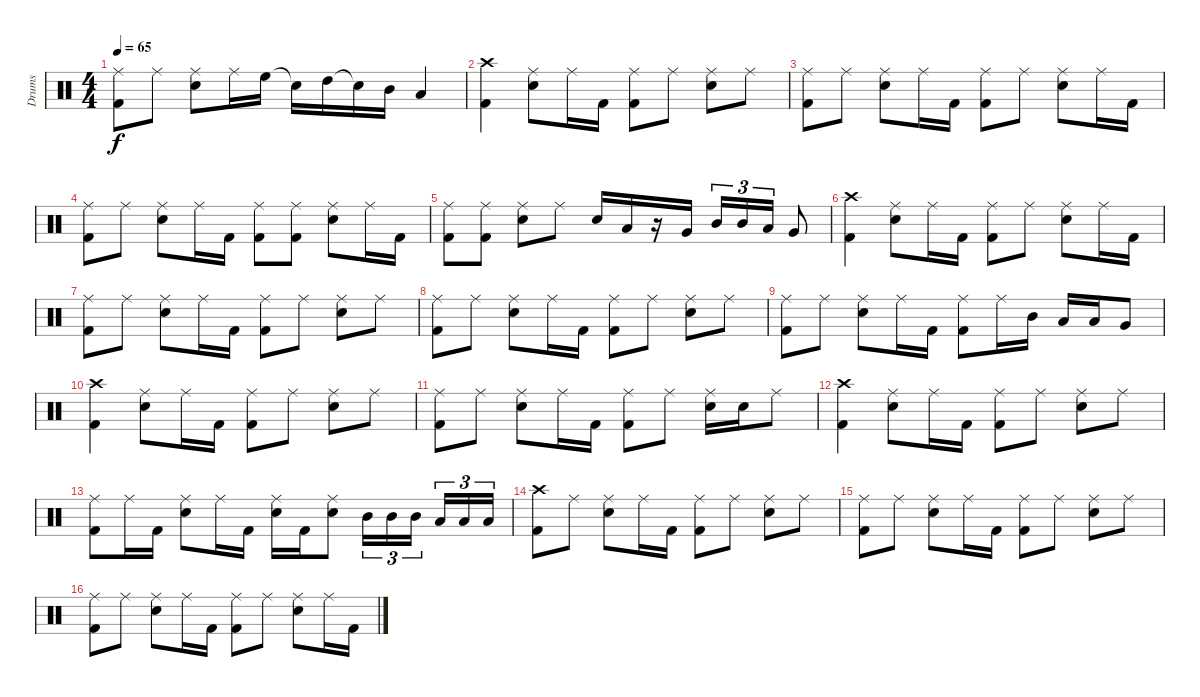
\track ("Drums" "Drums") {instrument percussion}
\staff {score}
\articulation defaults
\ts (4 4)
\tempo 65
\clef neutral
\ks c
("Ride (middle)" "Kick (hit) 2").8{dy f} "Ride (middle)".8 ("Ride (middle)" "Electric Snare (hit)").8 "Ride (middle)".16 "High Floor Tom (hit)".16 "Snare (hit)"{t}.16 "High Tom (hit)".16 "Snare (hit)"{t}.16 "Mid Tom (hit)".16 "Low Tom (hit)".4 |
("Crash high (hit)" "Kick (hit) 2").4 ("Ride (middle)" "Electric Snare (hit)").8 "Ride (middle)".16 "Kick (hit) 2".16 ("Ride (middle)" "Kick (hit) 2").8 "Ride (middle)".8 ("Ride (middle)" "Electric Snare (hit)").8 "Ride (middle)".8 |
("Ride (middle)" "Kick (hit) 2").8 "Ride (middle)".8 ("Ride (middle)" "Electric Snare (hit)").8 "Ride (middle)".16 "Kick (hit) 2".16 ("Ride (middle)" "Kick (hit) 2").8 "Ride (middle)".8 ("Ride (middle)" "Electric Snare (hit)").8 "Ride (middle)".16 "Kick (hit) 2".16 |
("Ride (middle)" "Kick (hit) 2").8 "Ride (middle)".8 ("Ride (middle)" "Electric Snare (hit)").8 "Ride (middle)".16 "Kick (hit) 2".16 ("Ride (middle)" "Kick (hit) 2").8 ("Ride (middle)" "Kick (hit) 2").8 ("Ride (middle)" "Electric Snare (hit)").8 "Ride (middle)".16 "Kick (hit) 2".16 |
("Ride (middle)" "Kick (hit) 2").8 ("Ride (middle)" "Kick (hit) 2").8 ("Ride (middle)" "Electric Snare (hit)").8 "Ride (middle)".8 "Electric Snare (hit)".16 "Low Tom (hit)".16 r.16 "Very Low Tom (hit)".16 "Mid Tom (hit)".16{tu (3 2)} "Mid Tom (hit)".16{tu (3 2)} "Low Tom (hit)".16{tu (3 2)} "Very Low Tom (hit)".8 |
("Crash high (hit)" "Kick (hit) 2").4 ("Ride (middle)" "Electric Snare (hit)").8 "Ride (middle)".16 "Kick (hit) 2".16 ("Ride (middle)" "Kick (hit) 2").8 "Ride (middle)".8 ("Ride (middle)" "Electric Snare (hit)").8 "Ride (middle)".16 "Kick (hit) 2".16 |
("Ride (middle)" "Kick (hit) 2").8 "Ride (middle)".8 ("Ride (middle)" "Electric Snare (hit)").8 "Ride (middle)".16 "Kick (hit) 2".16 ("Ride (middle)" "Kick (hit) 2").8 "Ride (middle)".8 ("Ride (middle)" "Electric Snare (hit)").8 "Ride (middle)".8 |
("Ride (middle)" "Kick (hit) 2").8 "Ride (middle)".8 ("Ride (middle)" "Electric Snare (hit)").8 "Ride (middle)".16 "Kick (hit) 2".16 ("Ride (middle)" "Kick (hit) 2").8 "Ride (middle)".8 ("Ride (middle)" "Electric Snare (hit)").8 "Ride (middle)".8 |
("Ride (middle)" "Kick (hit) 2").8 "Ride (middle)".8 ("Ride (middle)" "Electric Snare (hit)").8 "Ride (middle)".16 "Kick (hit) 2".16 ("Ride (middle)" "Kick (hit) 2").8 "Ride (middle)".16 "Mid Tom (hit)".16 "Low Tom (hit)".16 "Low Tom (hit)".16 "Very Low Tom (hit)".8 |
("Crash high (hit)" "Kick (hit) 2").4 ("Ride (middle)" "Electric Snare (hit)").8 "Ride (middle)".16 "Kick (hit) 2".16 ("Ride (middle)" "Kick (hit) 2").8 "Ride (middle)".8 ("Ride (middle)" "Electric Snare (hit)").8 "Ride (middle)".8 |
("Ride (middle)" "Kick (hit) 2").8 "Ride (middle)".8 ("Ride (middle)" "Electric Snare (hit)").8 "Ride (middle)".16 "Kick (hit) 2".16 ("Ride (middle)" "Kick (hit) 2").8 "Ride (middle)".8 ("Ride (middle)" "Electric Snare (hit)").16 "Electric Snare (hit)".16 "Ride (middle)".8 |
("Crash high (hit)" "Kick (hit) 2").4 ("Ride (middle)" "Electric Snare (hit)").8 "Ride (middle)".16 "Kick (hit) 2".16 ("Ride (middle)" "Kick (hit) 2").8 "Ride (middle)".8 ("Ride (middle)" "Electric Snare (hit)").8 "Ride (middle)".8 |
("Ride (middle)" "Kick (hit) 2").8 "Ride (middle)".16 "Kick (hit) 2".16 ("Ride (middle)" "Electric Snare (hit)").8 "Ride (middle)".16 "Kick (hit) 2".16 ("Ride (middle)" "Electric Snare (hit)").16 "Kick (hit) 2".16 ("Ride (middle)" "Electric Snare (hit)").8 "Mid Tom (hit)".16{tu (3 2)} "Mid Tom (hit)".16{tu (3 2)} "Mid Tom (hit)".16{tu (3 2)} "Low Tom (hit)".16{tu (3 2)} "Low Tom (hit)".16{tu (3 2)} "Low Tom (hit)".16{tu (3 2)} |
("Crash high (hit)" "Kick (hit) 2").8 "Ride (middle)".8 ("Ride (middle)" "Electric Snare (hit)").8 "Ride (middle)".16 "Kick (hit) 2".16 ("Ride (middle)" "Kick (hit) 2").8 "Ride (middle)".8 ("Ride (middle)" "Electric Snare (hit)").8 "Ride (middle)".8 |
("Ride (middle)" "Kick (hit) 2").8 "Ride (middle)".8 ("Ride (middle)" "Electric Snare (hit)").8 "Ride (middle)".16 "Kick (hit) 2".16 ("Ride (middle)" "Kick (hit) 2").8 "Ride (middle)".8 ("Ride (middle)" "Electric Snare (hit)").8 "Ride (middle)".8 |
("Ride (middle)" "Kick (hit) 2").8 "Ride (middle)".8 ("Ride (middle)" "Electric Snare (hit)").8 "Ride (middle)".16 "Kick (hit) 2".16 ("Ride (middle)" "Kick (hit) 2").8 "Ride (middle)".8 ("Ride (middle)" "Electric Snare (hit)").8 "Ride (middle)".16 "Kick (hit) 2".16
